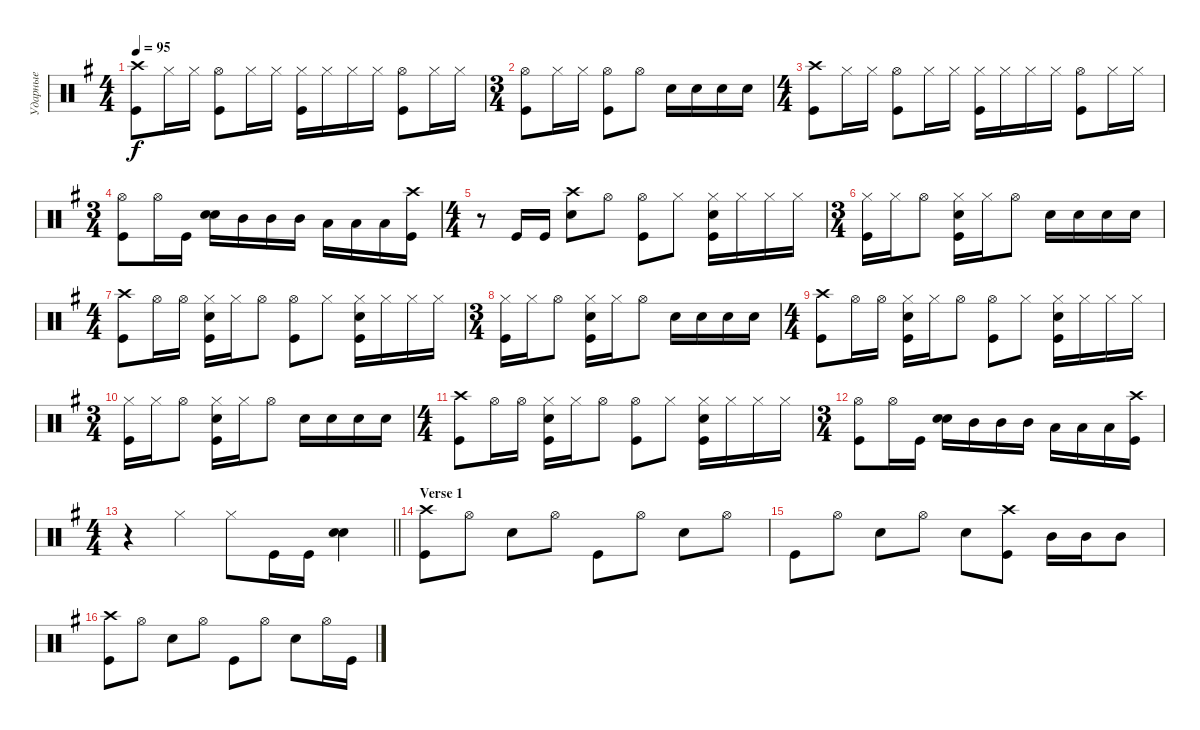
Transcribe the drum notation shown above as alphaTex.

\track ("Ударные" "Ударные") {instrument percussion}
\staff {score}
\articulation defaults
\ts (4 4)
\tempo 95
\clef neutral
\ks eminor
("Kick (hit)" "Crash high (hit)").8{dy f} "Hi-Hat (closed)".16 "Hi-Hat (closed)".16 ("Hi-Hat (open)" "Kick (hit)").8 "Hi-Hat (closed)".16 "Hi-Hat (closed)".16 ("Hi-Hat (closed)" "Kick (hit)").16 "Hi-Hat (closed)".16 "Hi-Hat (closed)".16 "Hi-Hat (closed)".16 ("Kick (hit)" "Hi-Hat (open)").8 "Hi-Hat (closed)".16 "Hi-Hat (closed)".16 |
\ts (3 4)
("Kick (hit)" "Hi-Hat (open)").8 "Hi-Hat (closed)".16 "Hi-Hat (closed)".16 ("Hi-Hat (open)" "Kick (hit)").8 "Hi-Hat (open)".8 "Snare (hit) 2".16 "Snare (hit) 2".16 "Snare (hit) 2".16 "Snare (hit) 2".16 |
\ts (4 4)
("Kick (hit)" "Crash high (hit)").8 "Hi-Hat (closed)".16 "Hi-Hat (closed)".16 ("Hi-Hat (open)" "Kick (hit)").8 "Hi-Hat (closed)".16 "Hi-Hat (closed)".16 ("Hi-Hat (closed)" "Kick (hit)").16 "Hi-Hat (closed)".16 "Hi-Hat (closed)".16 "Hi-Hat (closed)".16 ("Kick (hit)" "Hi-Hat (open)").8 "Hi-Hat (closed)".16 "Hi-Hat (closed)".16 |
\ts (3 4)
("Kick (hit)" "Hi-Hat (open)").8 "Hi-Hat (open)".16 "Kick (hit)".16 ("Snare (hit) 2" "Snare (hit) 2").16{bd 120} "Mid Tom (hit)".16 "Mid Tom (hit)".16 "Mid Tom (hit)".16 "Low Tom (hit)".16 "Low Tom (hit)".16 "Low Tom (hit)".16 ("Kick (hit)" "Crash high (hit)").16 |
\ts (4 4)
r.8 "Kick (hit)".16 "Kick (hit)".16 ("Snare (hit) 2" "Crash high (hit)").8 "Hi-Hat (open)".8 ("Hi-Hat (open)" "Kick (hit)").8 "Hi-Hat (closed)".8 ("Hi-Hat (closed)" "Snare (hit) 2" "Kick (hit)").16 "Hi-Hat (closed)".16 "Hi-Hat (closed)".16 "Hi-Hat (closed)".16 |
\ts (3 4)
("Hi-Hat (closed)" "Kick (hit)").16 "Hi-Hat (closed)".16 "Hi-Hat (open)".8 ("Hi-Hat (closed)" "Snare (hit) 2" "Kick (hit)").16 "Hi-Hat (closed)".16 "Hi-Hat (open)".8 "Snare (hit) 2".16 "Snare (hit) 2".16 "Snare (hit) 2".16 "Snare (hit) 2".16 |
\ts (4 4)
("Kick (hit)" "Crash high (hit)").8 "Hi-Hat (open)".16 "Hi-Hat (open)".16 ("Snare (hit) 2" "Hi-Hat (closed)" "Kick (hit)").16 "Hi-Hat (closed)".16 "Hi-Hat (open)".8 ("Hi-Hat (open)" "Kick (hit)").8 "Hi-Hat (closed)".8 ("Hi-Hat (closed)" "Snare (hit) 2" "Kick (hit)").16 "Hi-Hat (closed)".16 "Hi-Hat (closed)".16 "Hi-Hat (closed)".16 |
\ts (3 4)
("Hi-Hat (closed)" "Kick (hit)").16 "Hi-Hat (closed)".16 "Hi-Hat (open)".8 ("Hi-Hat (closed)" "Snare (hit) 2" "Kick (hit)").16 "Hi-Hat (closed)".16 "Hi-Hat (open)".8 "Snare (hit) 2".16 "Snare (hit) 2".16 "Snare (hit) 2".16 "Snare (hit) 2".16 |
\ts (4 4)
("Kick (hit)" "Crash high (hit)").8 "Hi-Hat (open)".16 "Hi-Hat (open)".16 ("Snare (hit) 2" "Hi-Hat (closed)" "Kick (hit)").16 "Hi-Hat (closed)".16 "Hi-Hat (open)".8 ("Hi-Hat (open)" "Kick (hit)").8 "Hi-Hat (closed)".8 ("Hi-Hat (closed)" "Snare (hit) 2" "Kick (hit)").16 "Hi-Hat (closed)".16 "Hi-Hat (closed)".16 "Hi-Hat (closed)".16 |
\ts (3 4)
("Hi-Hat (closed)" "Kick (hit)").16 "Hi-Hat (closed)".16 "Hi-Hat (open)".8 ("Hi-Hat (closed)" "Snare (hit) 2" "Kick (hit)").16 "Hi-Hat (closed)".16 "Hi-Hat (open)".8 "Snare (hit) 2".16 "Snare (hit) 2".16 "Snare (hit) 2".16 "Snare (hit) 2".16 |
\ts (4 4)
("Kick (hit)" "Crash high (hit)").8 "Hi-Hat (open)".16 "Hi-Hat (open)".16 ("Snare (hit) 2" "Hi-Hat (closed)" "Kick (hit)").16 "Hi-Hat (closed)".16 "Hi-Hat (open)".8 ("Hi-Hat (open)" "Kick (hit)").8 "Hi-Hat (closed)".8 ("Hi-Hat (closed)" "Snare (hit) 2" "Kick (hit)").16 "Hi-Hat (closed)".16 "Hi-Hat (closed)".16 "Hi-Hat (closed)".16 |
\ts (3 4)
("Hi-Hat (open)" "Kick (hit)").8 "Hi-Hat (open)".16 "Kick (hit)".16 ("Snare (hit) 2" "Snare (hit) 2").16{bd 120} "Mid Tom (hit)".16 "Mid Tom (hit)".16 "Mid Tom (hit)".16 "Low Tom (hit)".16 "Low Tom (hit)".16 "Low Tom (hit)".16 ("Kick (hit)" "Crash high (hit)").16 |
\ts (4 4)
\barLineRight lightlight
r.4 "Hi-Hat (closed)".4 "Hi-Hat (closed)".8 "Kick (hit)".16 "Kick (hit)".16 ("Snare (hit) 2" "Snare (hit) 2").4{bd 60} |
\section ("" "Verse 1")
("Kick (hit)" "Crash high (hit)").8 "Hi-Hat (open)".8 "Snare (hit) 2".8 "Hi-Hat (open)".8 "Kick (hit)".8 "Hi-Hat (open)".8 "Snare (hit) 2".8 "Hi-Hat (open)".8 |
"Kick (hit)".8 "Hi-Hat (open)".8 "Snare (hit) 2".8 "Hi-Hat (open)".8 "Snare (hit) 2".8 ("Kick (hit)" "Crash high (hit)").8 "Mid Tom (hit)".16 "Mid Tom (hit)".16 "Mid Tom (hit)".8 |
("Kick (hit)" "Crash high (hit)").8 "Hi-Hat (open)".8 "Snare (hit) 2".8 "Hi-Hat (open)".8 "Kick (hit)".8 "Hi-Hat (open)".8 "Snare (hit) 2".8 "Hi-Hat (open)".16 "Kick (hit)".16
